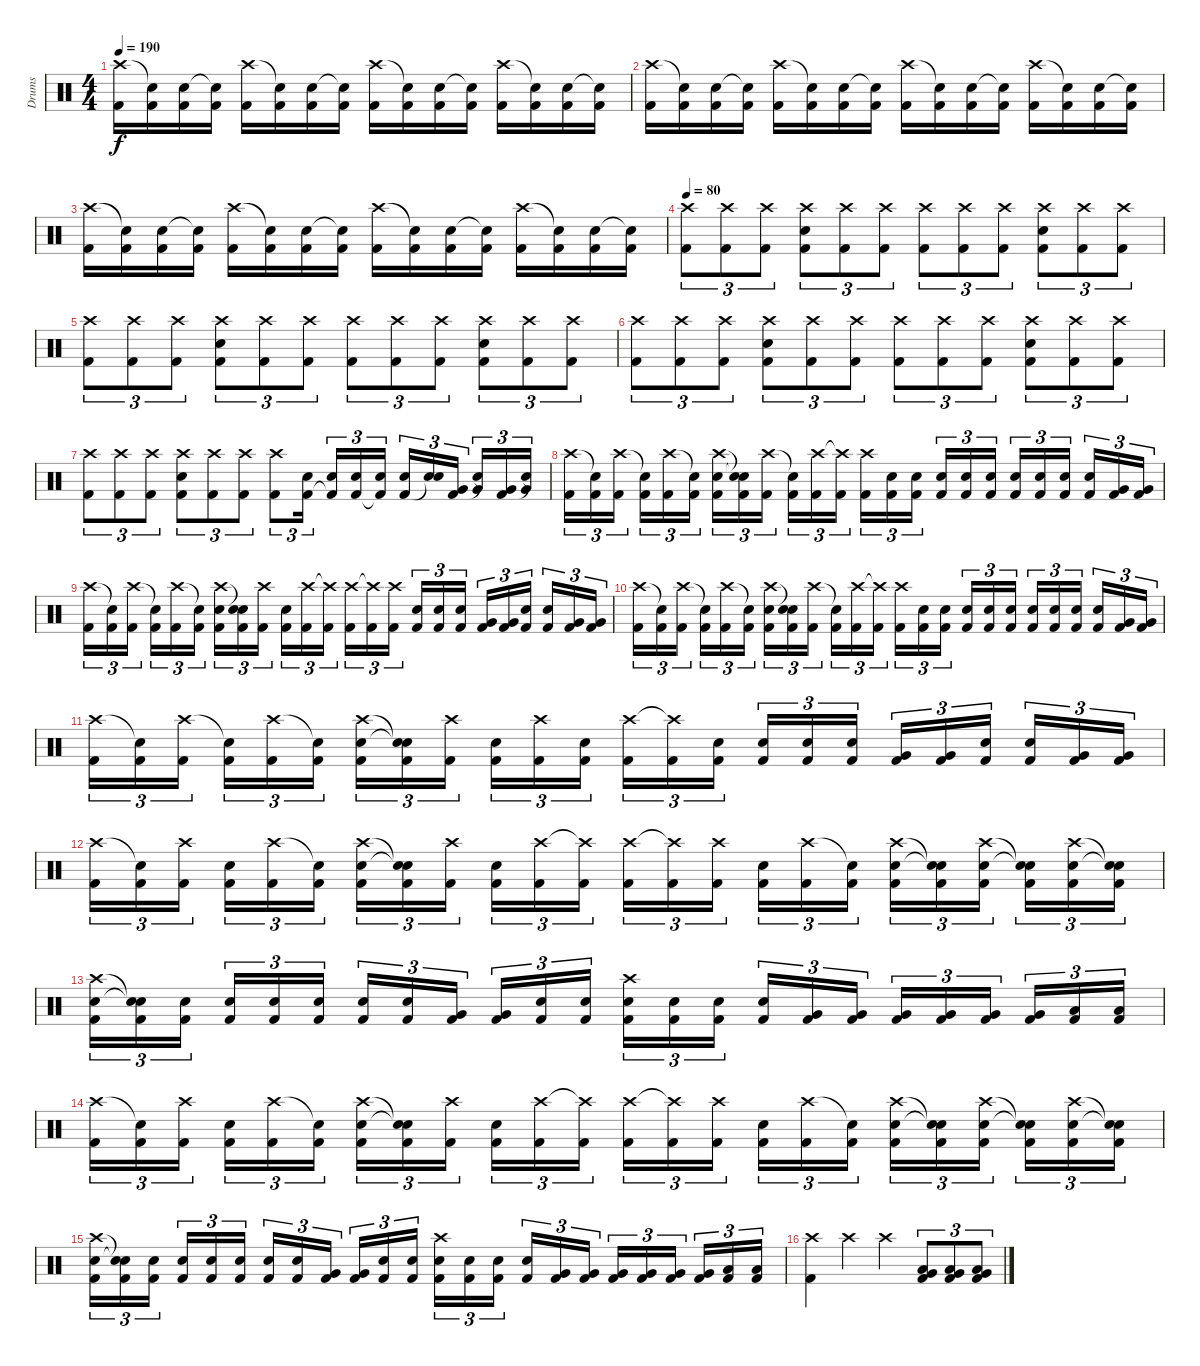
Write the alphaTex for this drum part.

\track ("Drums" "Drums") {instrument percussion}
\staff {score}
\articulation defaults
\ts (4 4)
\tempo 190
\clef neutral
\ks c
("Crash high (hit)" "Kick (hit) 2").16{dy f} ("Snare (hit)"{t} "Kick (hit) 2").16 ("Snare (hit) 2" "Kick (hit) 2").16 ("Snare (hit)"{t} "Kick (hit) 2").16 ("Crash high (hit)" "Kick (hit) 2").16 ("Snare (hit)"{t} "Kick (hit) 2").16 ("Snare (hit) 2" "Kick (hit) 2").16 ("Snare (hit)"{t} "Kick (hit) 2").16 ("Crash high (hit)" "Kick (hit) 2").16 ("Snare (hit)"{t} "Kick (hit) 2").16 ("Snare (hit) 2" "Kick (hit) 2").16 ("Snare (hit)"{t} "Kick (hit) 2").16 ("Crash high (hit)" "Kick (hit) 2").16 ("Snare (hit)"{t} "Kick (hit) 2").16 ("Snare (hit) 2" "Kick (hit) 2").16 ("Snare (hit)"{t} "Kick (hit) 2").16 |
("Crash high (hit)" "Kick (hit) 2").16 ("Snare (hit)"{t} "Kick (hit) 2").16 ("Snare (hit) 2" "Kick (hit) 2").16 ("Snare (hit)"{t} "Kick (hit) 2").16 ("Crash high (hit)" "Kick (hit) 2").16 ("Snare (hit)"{t} "Kick (hit) 2").16 ("Snare (hit) 2" "Kick (hit) 2").16 ("Snare (hit)"{t} "Kick (hit) 2").16 ("Crash high (hit)" "Kick (hit) 2").16 ("Snare (hit)"{t} "Kick (hit) 2").16 ("Snare (hit) 2" "Kick (hit) 2").16 ("Snare (hit)"{t} "Kick (hit) 2").16 ("Crash high (hit)" "Kick (hit) 2").16 ("Snare (hit)"{t} "Kick (hit) 2").16 ("Snare (hit) 2" "Kick (hit) 2").16 ("Snare (hit)"{t} "Kick (hit) 2").16 |
("Crash high (hit)" "Kick (hit) 2").16 ("Snare (hit)"{t} "Kick (hit) 2").16 ("Snare (hit) 2" "Kick (hit) 2").16 ("Snare (hit)"{t} "Kick (hit) 2").16 ("Crash high (hit)" "Kick (hit) 2").16 ("Snare (hit)"{t} "Kick (hit) 2").16 ("Snare (hit) 2" "Kick (hit) 2").16 ("Snare (hit)"{t} "Kick (hit) 2").16 ("Crash high (hit)" "Kick (hit) 2").16 ("Snare (hit)"{t} "Kick (hit) 2").16 ("Snare (hit) 2" "Kick (hit) 2").16 ("Snare (hit)"{t} "Kick (hit) 2").16 ("Crash high (hit)" "Kick (hit) 2").16 ("Snare (hit)"{t} "Kick (hit) 2").16 ("Snare (hit) 2" "Kick (hit) 2").16 ("Snare (hit)"{t} "Kick (hit) 2").16 |
\tempo 80
("Crash high (hit)" "Kick (hit) 2").8{tu (3 2)} ("Crash high (hit)" "Kick (hit) 2").8{tu (3 2)} ("Crash high (hit)" "Kick (hit) 2").8{tu (3 2)} ("Crash high (hit)" "Snare (hit) 2" "Kick (hit) 2").8{tu (3 2)} ("Crash high (hit)" "Kick (hit) 2").8{tu (3 2)} ("Crash high (hit)" "Kick (hit) 2").8{tu (3 2)} ("Crash high (hit)" "Kick (hit) 2").8{tu (3 2)} ("Crash high (hit)" "Kick (hit) 2").8{tu (3 2)} ("Crash high (hit)" "Kick (hit) 2").8{tu (3 2)} ("Crash high (hit)" "Snare (hit) 2" "Kick (hit) 2").8{tu (3 2)} ("Crash high (hit)" "Kick (hit) 2").8{tu (3 2)} ("Crash high (hit)" "Kick (hit) 2").8{tu (3 2)} |
("Crash high (hit)" "Kick (hit) 2").8{tu (3 2)} ("Crash high (hit)" "Kick (hit) 2").8{tu (3 2)} ("Crash high (hit)" "Kick (hit) 2").8{tu (3 2)} ("Crash high (hit)" "Snare (hit) 2" "Kick (hit) 2").8{tu (3 2)} ("Crash high (hit)" "Kick (hit) 2").8{tu (3 2)} ("Crash high (hit)" "Kick (hit) 2").8{tu (3 2)} ("Crash high (hit)" "Kick (hit) 2").8{tu (3 2)} ("Crash high (hit)" "Kick (hit) 2").8{tu (3 2)} ("Crash high (hit)" "Kick (hit) 2").8{tu (3 2)} ("Crash high (hit)" "Snare (hit) 2" "Kick (hit) 2").8{tu (3 2)} ("Crash high (hit)" "Kick (hit) 2").8{tu (3 2)} ("Crash high (hit)" "Kick (hit) 2").8{tu (3 2)} |
("Crash high (hit)" "Kick (hit) 2").8{tu (3 2)} ("Crash high (hit)" "Kick (hit) 2").8{tu (3 2)} ("Crash high (hit)" "Kick (hit) 2").8{tu (3 2)} ("Crash high (hit)" "Snare (hit) 2" "Kick (hit) 2").8{tu (3 2)} ("Crash high (hit)" "Kick (hit) 2").8{tu (3 2)} ("Crash high (hit)" "Kick (hit) 2").8{tu (3 2)} ("Crash high (hit)" "Kick (hit) 2").8{tu (3 2)} ("Crash high (hit)" "Kick (hit) 2").8{tu (3 2)} ("Crash high (hit)" "Kick (hit) 2").8{tu (3 2)} ("Crash high (hit)" "Snare (hit) 2" "Kick (hit) 2").8{tu (3 2)} ("Crash high (hit)" "Kick (hit) 2").8{tu (3 2)} ("Crash high (hit)" "Kick (hit) 2").8{tu (3 2)} |
("Crash high (hit)" "Kick (hit) 2").8{tu (3 2)} ("Crash high (hit)" "Kick (hit) 2").8{tu (3 2)} ("Crash high (hit)" "Kick (hit) 2").8{tu (3 2)} ("Crash high (hit)" "Snare (hit) 2" "Kick (hit) 2").8{tu (3 2)} ("Crash high (hit)" "Kick (hit) 2").8{tu (3 2)} ("Crash high (hit)" "Kick (hit) 2").8{tu (3 2)} ("Crash high (hit)" "Kick (hit) 2").8{tu (3 2)} ("Snare (hit) 2" "Kick (hit) 2").16{tu (3 2)} ("Snare (hit) 2" "Kick (hit) 2"{t}).16{tu (3 2)} ("Snare (hit) 2" "Kick (hit) 2").16{tu (3 2)} ("Snare (hit) 2" "Kick (hit) 2"{t}).16{tu (3 2)} ("Snare (hit) 2" "Kick (hit) 2").16{tu (3 2)} ("Snare (hit) 2" "Snare (hit)"{t}).16{tu (3 2)} ("Very Low Tom (hit)" "Kick (hit) 2").16{tu (3 2)} ("Very Low Tom (hit)" "Snare (hit)"{t}).16{tu (3 2)} ("Very Low Tom (hit)" "Kick (hit) 2").16{tu (3 2)} ("Very Low Tom (hit)" "Snare (hit)"{t}).16{tu (3 2)} |
("Crash high (hit)" "Kick (hit) 2").16{tu (3 2)} ("Snare (hit)"{t} "Kick (hit) 2").16{tu (3 2)} ("Crash high (hit)" "Kick (hit) 2").16{tu (3 2)} ("Snare (hit)"{t} "Kick (hit) 2").16{tu (3 2)} ("Crash high (hit)" "Kick (hit) 2").16{tu (3 2)} ("Snare (hit)"{t} "Kick (hit) 2").16{tu (3 2)} ("Crash high (hit)" "Snare (hit) 2" "Kick (hit) 2").16{tu (3 2)} ("Snare (hit)"{t} "Snare (hit)"{t} "Kick (hit) 2").16{tu (3 2)} ("Crash high (hit)" "Kick (hit) 2").16{tu (3 2)} ("Snare (hit)"{t} "Kick (hit) 2").16{tu (3 2)} ("Crash high (hit)" "Kick (hit) 2").16{tu (3 2)} ("Crash high (hit)"{t} "Kick (hit) 2").16{tu (3 2)} ("Crash high (hit)" "Kick (hit) 2").16{tu (3 2)} ("Snare (hit) 2" "Kick (hit) 2").16{tu (3 2)} ("Snare (hit) 2" "Kick (hit) 2").16{tu (3 2)} ("Snare (hit) 2" "Kick (hit) 2").16{tu (3 2)} ("Snare (hit) 2" "Kick (hit) 2").16{tu (3 2)} ("Snare (hit) 2" "Kick (hit) 2").16{tu (3 2)} ("Snare (hit) 2" "Kick (hit) 2").16{tu (3 2)} ("Snare (hit) 2" "Kick (hit) 2").16{tu (3 2)} ("Snare (hit) 2" "Kick (hit) 2").16{tu (3 2)} ("Snare (hit) 2" "Kick (hit) 2").16{tu (3 2)} ("Very Low Tom (hit)" "Kick (hit) 2").16{tu (3 2)} ("Very Low Tom (hit)" "Kick (hit) 2").16{tu (3 2)} |
("Crash high (hit)" "Kick (hit) 2").16{tu (3 2)} ("Snare (hit)"{t} "Kick (hit) 2").16{tu (3 2)} ("Crash high (hit)" "Kick (hit) 2").16{tu (3 2)} ("Snare (hit)"{t} "Kick (hit) 2").16{tu (3 2)} ("Crash high (hit)" "Kick (hit) 2").16{tu (3 2)} ("Snare (hit)"{t} "Kick (hit) 2").16{tu (3 2)} ("Crash high (hit)" "Snare (hit) 2" "Kick (hit) 2").16{tu (3 2)} ("Snare (hit)"{t} "Snare (hit)"{t} "Kick (hit) 2").16{tu (3 2)} ("Crash high (hit)" "Kick (hit) 2").16{tu (3 2)} ("Snare (hit) 2" "Kick (hit) 2").16{tu (3 2)} ("Crash high (hit)" "Kick (hit) 2").16{tu (3 2)} ("Crash high (hit)"{t} "Kick (hit) 2").16{tu (3 2)} ("Crash high (hit)" "Kick (hit) 2").16{tu (3 2)} ("Crash high (hit)"{t} "Kick (hit) 2").16{tu (3 2)} ("Crash high (hit)" "Kick (hit) 2").16{tu (3 2)} ("Snare (hit) 2" "Kick (hit) 2").16{tu (3 2)} ("Snare (hit) 2" "Kick (hit) 2").16{tu (3 2)} ("Snare (hit) 2" "Kick (hit) 2").16{tu (3 2)} ("Very Low Tom (hit)" "Kick (hit) 2").16{tu (3 2)} ("Very Low Tom (hit)" "Kick (hit) 2").16{tu (3 2)} ("Snare (hit) 2" "Kick (hit) 2").16{tu (3 2)} ("Snare (hit) 2" "Kick (hit) 2").16{tu (3 2)} ("Very Low Tom (hit)" "Kick (hit) 2").16{tu (3 2)} ("Very Low Tom (hit)" "Kick (hit) 2").16{tu (3 2)} |
("Crash high (hit)" "Kick (hit) 2").16{tu (3 2)} ("Snare (hit)"{t} "Kick (hit) 2").16{tu (3 2)} ("Crash high (hit)" "Kick (hit) 2").16{tu (3 2)} ("Snare (hit)"{t} "Kick (hit) 2").16{tu (3 2)} ("Crash high (hit)" "Kick (hit) 2").16{tu (3 2)} ("Snare (hit)"{t} "Kick (hit) 2").16{tu (3 2)} ("Crash high (hit)" "Snare (hit) 2" "Kick (hit) 2").16{tu (3 2)} ("Snare (hit)"{t} "Snare (hit)"{t} "Kick (hit) 2").16{tu (3 2)} ("Crash high (hit)" "Kick (hit) 2").16{tu (3 2)} ("Snare (hit)"{t} "Kick (hit) 2").16{tu (3 2)} ("Crash high (hit)" "Kick (hit) 2").16{tu (3 2)} ("Crash high (hit)"{t} "Kick (hit) 2").16{tu (3 2)} ("Crash high (hit)" "Kick (hit) 2").16{tu (3 2)} ("Snare (hit) 2" "Kick (hit) 2").16{tu (3 2)} ("Snare (hit) 2" "Kick (hit) 2").16{tu (3 2)} ("Snare (hit) 2" "Kick (hit) 2").16{tu (3 2)} ("Snare (hit) 2" "Kick (hit) 2").16{tu (3 2)} ("Snare (hit) 2" "Kick (hit) 2").16{tu (3 2)} ("Snare (hit) 2" "Kick (hit) 2").16{tu (3 2)} ("Snare (hit) 2" "Kick (hit) 2").16{tu (3 2)} ("Snare (hit) 2" "Kick (hit) 2").16{tu (3 2)} ("Snare (hit) 2" "Kick (hit) 2").16{tu (3 2)} ("Very Low Tom (hit)" "Kick (hit) 2").16{tu (3 2)} ("Very Low Tom (hit)" "Kick (hit) 2").16{tu (3 2)} |
("Crash high (hit)" "Kick (hit) 2").16{tu (3 2)} ("Snare (hit)"{t} "Kick (hit) 2").16{tu (3 2)} ("Crash high (hit)" "Kick (hit) 2").16{tu (3 2)} ("Snare (hit)"{t} "Kick (hit) 2").16{tu (3 2)} ("Crash high (hit)" "Kick (hit) 2").16{tu (3 2)} ("Snare (hit)"{t} "Kick (hit) 2").16{tu (3 2)} ("Crash high (hit)" "Snare (hit) 2" "Kick (hit) 2").16{tu (3 2)} ("Snare (hit)"{t} "Snare (hit)"{t} "Kick (hit) 2").16{tu (3 2)} ("Crash high (hit)" "Kick (hit) 2").16{tu (3 2)} ("Snare (hit) 2" "Kick (hit) 2").16{tu (3 2)} ("Crash high (hit)" "Kick (hit) 2").16{tu (3 2)} ("Snare (hit) 2" "Kick (hit) 2").16{tu (3 2)} ("Crash high (hit)" "Kick (hit) 2").16{tu (3 2)} ("Crash high (hit)"{t} "Kick (hit) 2").16{tu (3 2)} ("Snare (hit) 2" "Kick (hit) 2").16{tu (3 2)} ("Snare (hit) 2" "Kick (hit) 2").16{tu (3 2)} ("Snare (hit) 2" "Kick (hit) 2").16{tu (3 2)} ("Snare (hit) 2" "Kick (hit) 2").16{tu (3 2)} ("Very Low Tom (hit)" "Kick (hit) 2").16{tu (3 2)} ("Very Low Tom (hit)" "Kick (hit) 2").16{tu (3 2)} ("Snare (hit) 2" "Kick (hit) 2").16{tu (3 2)} ("Snare (hit) 2" "Kick (hit) 2").16{tu (3 2)} ("Very Low Tom (hit)" "Kick (hit) 2").16{tu (3 2)} ("Very Low Tom (hit)" "Kick (hit) 2").16{tu (3 2)} |
("Crash high (hit)" "Kick (hit) 2").16{tu (3 2)} ("Snare (hit)"{t} "Kick (hit) 2").16{tu (3 2)} ("Crash high (hit)" "Kick (hit) 2").16{tu (3 2)} ("Snare (hit) 2" "Kick (hit) 2").16{tu (3 2)} ("Crash high (hit)" "Kick (hit) 2").16{tu (3 2)} ("Snare (hit)"{t} "Kick (hit) 2").16{tu (3 2)} ("Crash high (hit)" "Snare (hit) 2" "Kick (hit) 2").16{tu (3 2)} ("Snare (hit)"{t} "Snare (hit)"{t} "Kick (hit) 2").16{tu (3 2)} ("Crash high (hit)" "Kick (hit) 2").16{tu (3 2)} ("Snare (hit) 2" "Kick (hit) 2").16{tu (3 2)} ("Crash high (hit)" "Kick (hit) 2").16{tu (3 2)} ("Crash high (hit)"{t} "Kick (hit) 2").16{tu (3 2)} ("Crash high (hit)" "Kick (hit) 2").16{tu (3 2)} ("Crash high (hit)"{t} "Kick (hit) 2").16{tu (3 2)} ("Crash high (hit)" "Kick (hit) 2").16{tu (3 2)} ("Snare (hit) 2" "Kick (hit) 2").16{tu (3 2)} ("Crash high (hit)" "Kick (hit) 2").16{tu (3 2)} ("Snare (hit)"{t} "Kick (hit) 2").16{tu (3 2)} ("Crash high (hit)" "Snare (hit) 2" "Kick (hit) 2").16{tu (3 2)} ("Snare (hit)"{t} "Snare (hit) 2"{t} "Kick (hit) 2").16{tu (3 2)} ("Crash high (hit)" "Snare (hit) 2" "Kick (hit) 2").16{tu (3 2)} ("Snare (hit)"{t} "Snare (hit) 2"{t} "Kick (hit) 2").16{tu (3 2)} ("Crash high (hit)" "Snare (hit) 2" "Kick (hit) 2").16{tu (3 2)} ("Snare (hit)"{t} "Snare (hit)"{t} "Kick (hit) 2").16{tu (3 2)} |
("Crash high (hit)" "Snare (hit) 2" "Kick (hit) 2").16{tu (3 2)} ("Snare (hit)"{t} "Snare (hit)"{t} "Kick (hit) 2").16{tu (3 2)} ("Snare (hit) 2" "Kick (hit) 2").16{tu (3 2)} ("Snare (hit) 2" "Kick (hit) 2").16{tu (3 2)} ("Snare (hit) 2" "Kick (hit) 2").16{tu (3 2)} ("Snare (hit) 2" "Kick (hit) 2").16{tu (3 2)} ("Snare (hit) 2" "Kick (hit) 2").16{tu (3 2)} ("Snare (hit) 2" "Kick (hit) 2").16{tu (3 2)} ("Very Low Tom (hit)" "Kick (hit) 2").16{tu (3 2)} ("Very Low Tom (hit)" "Kick (hit) 2").16{tu (3 2)} ("Snare (hit) 2" "Kick (hit) 2").16{tu (3 2)} ("Snare (hit) 2" "Kick (hit) 2").16{tu (3 2)} ("Crash high (hit)" "Snare (hit) 2" "Kick (hit) 2").16{tu (3 2)} ("Snare (hit) 2" "Kick (hit) 2").16{tu (3 2)} ("Snare (hit) 2" "Kick (hit) 2").16{tu (3 2)} ("Snare (hit) 2" "Kick (hit) 2").16{tu (3 2)} ("Very Low Tom (hit)" "Kick (hit) 2").16{tu (3 2)} ("Very Low Tom (hit)" "Kick (hit) 2").16{tu (3 2)} ("Very Low Tom (hit)" "Kick (hit) 2").16{tu (3 2)} ("Very Low Tom (hit)" "Kick (hit) 2").16{tu (3 2)} ("Very Low Tom (hit)" "Kick (hit) 2").16{tu (3 2)} ("Very Low Tom (hit)" "Kick (hit) 2").16{tu (3 2)} ("Low Floor Tom (hit)" "Kick (hit) 2").16{tu (3 2)} ("Low Floor Tom (hit)" "Kick (hit) 2").16{tu (3 2)} |
("Crash high (hit)" "Kick (hit) 2").16{tu (3 2)} ("Snare (hit)"{t} "Kick (hit) 2").16{tu (3 2)} ("Crash high (hit)" "Kick (hit) 2").16{tu (3 2)} ("Snare (hit) 2" "Kick (hit) 2").16{tu (3 2)} ("Crash high (hit)" "Kick (hit) 2").16{tu (3 2)} ("Snare (hit)"{t} "Kick (hit) 2").16{tu (3 2)} ("Crash high (hit)" "Snare (hit) 2" "Kick (hit) 2").16{tu (3 2)} ("Snare (hit)"{t} "Snare (hit)"{t} "Kick (hit) 2").16{tu (3 2)} ("Crash high (hit)" "Kick (hit) 2").16{tu (3 2)} ("Snare (hit) 2" "Kick (hit) 2").16{tu (3 2)} ("Crash high (hit)" "Kick (hit) 2").16{tu (3 2)} ("Crash high (hit)"{t} "Kick (hit) 2").16{tu (3 2)} ("Crash high (hit)" "Kick (hit) 2").16{tu (3 2)} ("Crash high (hit)"{t} "Kick (hit) 2").16{tu (3 2)} ("Crash high (hit)" "Kick (hit) 2").16{tu (3 2)} ("Snare (hit) 2" "Kick (hit) 2").16{tu (3 2)} ("Crash high (hit)" "Kick (hit) 2").16{tu (3 2)} ("Snare (hit)"{t} "Kick (hit) 2").16{tu (3 2)} ("Crash high (hit)" "Snare (hit) 2" "Kick (hit) 2").16{tu (3 2)} ("Snare (hit)"{t} "Snare (hit) 2"{t} "Kick (hit) 2").16{tu (3 2)} ("Crash high (hit)" "Snare (hit) 2" "Kick (hit) 2").16{tu (3 2)} ("Snare (hit)"{t} "Snare (hit) 2"{t} "Kick (hit) 2").16{tu (3 2)} ("Crash high (hit)" "Snare (hit) 2" "Kick (hit) 2").16{tu (3 2)} ("Snare (hit)"{t} "Snare (hit)"{t} "Kick (hit) 2").16{tu (3 2)} |
("Crash high (hit)" "Snare (hit) 2" "Kick (hit) 2").16{tu (3 2)} ("Snare (hit)"{t} "Snare (hit)"{t} "Kick (hit) 2").16{tu (3 2)} ("Snare (hit) 2" "Kick (hit) 2").16{tu (3 2)} ("Snare (hit) 2" "Kick (hit) 2").16{tu (3 2)} ("Snare (hit) 2" "Kick (hit) 2").16{tu (3 2)} ("Snare (hit) 2" "Kick (hit) 2").16{tu (3 2)} ("Snare (hit) 2" "Kick (hit) 2").16{tu (3 2)} ("Snare (hit) 2" "Kick (hit) 2").16{tu (3 2)} ("Very Low Tom (hit)" "Kick (hit) 2").16{tu (3 2)} ("Very Low Tom (hit)" "Kick (hit) 2").16{tu (3 2)} ("Snare (hit) 2" "Kick (hit) 2").16{tu (3 2)} ("Snare (hit) 2" "Kick (hit) 2").16{tu (3 2)} ("Crash high (hit)" "Snare (hit) 2" "Kick (hit) 2").16{tu (3 2)} ("Snare (hit) 2" "Kick (hit) 2").16{tu (3 2)} ("Snare (hit) 2" "Kick (hit) 2").16{tu (3 2)} ("Snare (hit) 2" "Kick (hit) 2").16{tu (3 2)} ("Very Low Tom (hit)" "Kick (hit) 2").16{tu (3 2)} ("Very Low Tom (hit)" "Kick (hit) 2").16{tu (3 2)} ("Very Low Tom (hit)" "Kick (hit) 2").16{tu (3 2)} ("Very Low Tom (hit)" "Kick (hit) 2").16{tu (3 2)} ("Very Low Tom (hit)" "Kick (hit) 2").16{tu (3 2)} ("Very Low Tom (hit)" "Kick (hit) 2").16{tu (3 2)} ("Low Floor Tom (hit)" "Kick (hit) 2").16{tu (3 2)} ("Low Floor Tom (hit)" "Kick (hit) 2").16{tu (3 2)} |
("Crash high (hit)" "Kick (hit) 2").4 "Crash high (hit)".4 "Crash high (hit)".4 ("Very Low Tom (hit)" "Low Floor Tom (hit)" "Kick (hit) 2").8{tu (3 2)} ("Very Low Tom (hit)" "Low Floor Tom (hit)" "Kick (hit) 2").8{tu (3 2)} ("Very Low Tom (hit)" "Low Floor Tom (hit)" "Kick (hit) 2").8{tu (3 2)}
